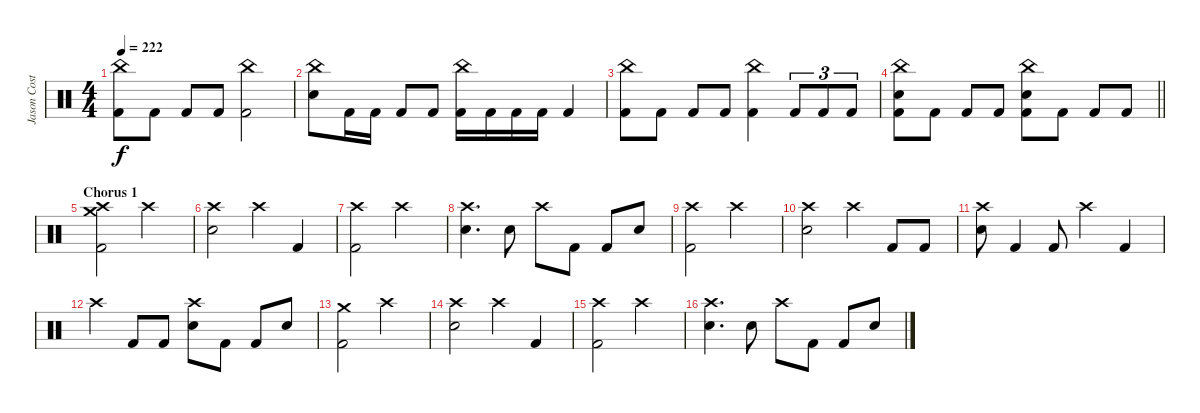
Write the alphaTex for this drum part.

\track ("Jason Costa" "Jason Cost") {instrument percussion}
\staff {score}
\articulation defaults
\ts (4 4)
\tempo 222
\clef neutral
\ks c
("China (hit)" "Kick (hit) 2").8{dy f} "Kick (hit) 2".8 "Kick (hit) 2".8 "Kick (hit) 2".8 ("China (hit)" "Kick (hit) 2").2 |
("China (hit)" "Electric Snare (hit)").8 "Kick (hit) 2".16 "Kick (hit) 2".16 "Kick (hit) 2".8 "Kick (hit) 2".8 ("China (hit)" "Kick (hit) 2").16 "Kick (hit) 2".16 "Kick (hit) 2".16 "Kick (hit) 2".16 "Kick (hit) 2".4 |
("China (hit)" "Kick (hit) 2").8 "Kick (hit) 2".8 "Kick (hit) 2".8 "Kick (hit) 2".8 ("China (hit)" "Kick (hit) 2").4 "Kick (hit) 2".8{tu (3 2)} "Kick (hit) 2".8{tu (3 2)} "Kick (hit) 2".8{tu (3 2)} |
\barLineRight lightlight
("China (hit)" "Electric Snare (hit)" "Kick (hit) 2").8 "Kick (hit) 2".8 "Kick (hit) 2".8 "Kick (hit) 2".8 ("China (hit)" "Electric Snare (hit)" "Kick (hit) 2").8 "Kick (hit) 2".8 "Kick (hit) 2".8 "Kick (hit) 2".8 |
\section ("" "Chorus 1")
("Crash high (hit)" "Crash medium (hit)" "Kick (hit) 2").2 "Crash high (hit)".2 |
("Crash high (hit)" "Electric Snare (hit)").2 "Crash high (hit)".4 "Kick (hit) 2".4 |
("Crash high (hit)" "Kick (hit) 2").2 "Crash high (hit)".2 |
("Crash high (hit)" "Electric Snare (hit)").4{d} "Electric Snare (hit)".8 "Crash high (hit)".8 "Kick (hit) 2".8 "Kick (hit) 2".8 "Electric Snare (hit)".8 |
("Crash high (hit)" "Kick (hit) 2").2 "Crash high (hit)".2 |
("Crash high (hit)" "Electric Snare (hit)").2 "Crash high (hit)".4 "Kick (hit) 2".8 "Kick (hit) 2".8 |
("Crash high (hit)" "Electric Snare (hit)").8 "Kick (hit) 2".4 "Kick (hit) 2".8 "Crash high (hit)".4 "Kick (hit) 2".4 |
"Crash high (hit)".4 "Kick (hit) 2".8 "Kick (hit) 2".8 ("Crash high (hit)" "Electric Snare (hit)").8 "Kick (hit) 2".8 "Kick (hit) 2".8 "Electric Snare (hit)".8 |
("Crash medium (hit)" "Kick (hit) 2").2 "Crash high (hit)".2 |
("Crash high (hit)" "Electric Snare (hit)").2 "Crash high (hit)".4 "Kick (hit) 2".4 |
("Crash high (hit)" "Kick (hit) 2").2 "Crash high (hit)".2 |
("Crash high (hit)" "Electric Snare (hit)").4{d} "Electric Snare (hit)".8 "Crash high (hit)".8 "Kick (hit) 2".8 "Kick (hit) 2".8 "Electric Snare (hit)".8
